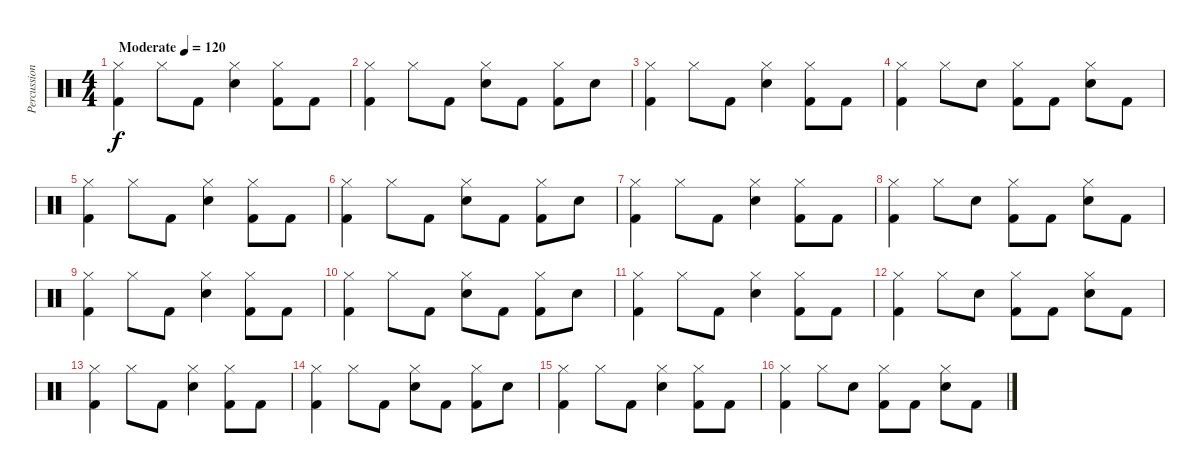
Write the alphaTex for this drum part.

\track ("Percussions" "Percussion") {instrument percussion}
\staff {score}
\articulation defaults
\ts (4 4)
\tempo (120 "Moderate")
\clef neutral
\ks c
("Hi-Hat (closed)" "Kick (hit) 2").4{dy f} "Hi-Hat (closed)".8 "Kick (hit) 2".8 ("Hi-Hat (closed)" "Snare (hit) 2").4 ("Hi-Hat (closed)" "Kick (hit) 2").8 "Kick (hit) 2".8 |
("Hi-Hat (closed)" "Kick (hit) 2").4 "Hi-Hat (closed)".8 "Kick (hit) 2".8 ("Hi-Hat (closed)" "Snare (hit) 2").8 "Kick (hit) 2".8 ("Hi-Hat (closed)" "Kick (hit) 2").8 "Snare (hit) 2".8 |
("Hi-Hat (closed)" "Kick (hit) 2").4 "Hi-Hat (closed)".8 "Kick (hit) 2".8 ("Hi-Hat (closed)" "Snare (hit) 2").4 ("Hi-Hat (closed)" "Kick (hit) 2").8 "Kick (hit) 2".8 |
("Hi-Hat (closed)" "Kick (hit) 2").4 "Hi-Hat (closed)".8 "Snare (hit) 2".8 ("Hi-Hat (closed)" "Kick (hit) 2").8 "Kick (hit) 2".8 ("Hi-Hat (closed)" "Snare (hit) 2").8 "Kick (hit) 2".8 |
("Hi-Hat (closed)" "Kick (hit) 2").4 "Hi-Hat (closed)".8 "Kick (hit) 2".8 ("Hi-Hat (closed)" "Snare (hit) 2").4 ("Hi-Hat (closed)" "Kick (hit) 2").8 "Kick (hit) 2".8 |
("Hi-Hat (closed)" "Kick (hit) 2").4 "Hi-Hat (closed)".8 "Kick (hit) 2".8 ("Hi-Hat (closed)" "Snare (hit) 2").8 "Kick (hit) 2".8 ("Hi-Hat (closed)" "Kick (hit) 2").8 "Snare (hit) 2".8 |
("Hi-Hat (closed)" "Kick (hit) 2").4 "Hi-Hat (closed)".8 "Kick (hit) 2".8 ("Hi-Hat (closed)" "Snare (hit) 2").4 ("Hi-Hat (closed)" "Kick (hit) 2").8 "Kick (hit) 2".8 |
("Hi-Hat (closed)" "Kick (hit) 2").4 "Hi-Hat (closed)".8 "Snare (hit) 2".8 ("Hi-Hat (closed)" "Kick (hit) 2").8 "Kick (hit) 2".8 ("Hi-Hat (closed)" "Snare (hit) 2").8 "Kick (hit) 2".8 |
("Hi-Hat (closed)" "Kick (hit) 2").4 "Hi-Hat (closed)".8 "Kick (hit) 2".8 ("Hi-Hat (closed)" "Snare (hit) 2").4 ("Hi-Hat (closed)" "Kick (hit) 2").8 "Kick (hit) 2".8 |
("Hi-Hat (closed)" "Kick (hit) 2").4 "Hi-Hat (closed)".8 "Kick (hit) 2".8 ("Hi-Hat (closed)" "Snare (hit) 2").8 "Kick (hit) 2".8 ("Hi-Hat (closed)" "Kick (hit) 2").8 "Snare (hit) 2".8 |
("Hi-Hat (closed)" "Kick (hit) 2").4 "Hi-Hat (closed)".8 "Kick (hit) 2".8 ("Hi-Hat (closed)" "Snare (hit) 2").4 ("Hi-Hat (closed)" "Kick (hit) 2").8 "Kick (hit) 2".8 |
("Hi-Hat (closed)" "Kick (hit) 2").4 "Hi-Hat (closed)".8 "Snare (hit) 2".8 ("Hi-Hat (closed)" "Kick (hit) 2").8 "Kick (hit) 2".8 ("Hi-Hat (closed)" "Snare (hit) 2").8 "Kick (hit) 2".8 |
("Hi-Hat (closed)" "Kick (hit) 2").4 "Hi-Hat (closed)".8 "Kick (hit) 2".8 ("Hi-Hat (closed)" "Snare (hit) 2").4 ("Hi-Hat (closed)" "Kick (hit) 2").8 "Kick (hit) 2".8 |
("Hi-Hat (closed)" "Kick (hit) 2").4 "Hi-Hat (closed)".8 "Kick (hit) 2".8 ("Hi-Hat (closed)" "Snare (hit) 2").8 "Kick (hit) 2".8 ("Hi-Hat (closed)" "Kick (hit) 2").8 "Snare (hit) 2".8 |
("Hi-Hat (closed)" "Kick (hit) 2").4 "Hi-Hat (closed)".8 "Kick (hit) 2".8 ("Hi-Hat (closed)" "Snare (hit) 2").4 ("Hi-Hat (closed)" "Kick (hit) 2").8 "Kick (hit) 2".8 |
("Hi-Hat (closed)" "Kick (hit) 2").4 "Hi-Hat (closed)".8 "Snare (hit) 2".8 ("Hi-Hat (closed)" "Kick (hit) 2").8 "Kick (hit) 2".8 ("Hi-Hat (closed)" "Snare (hit) 2").8 "Kick (hit) 2".8
